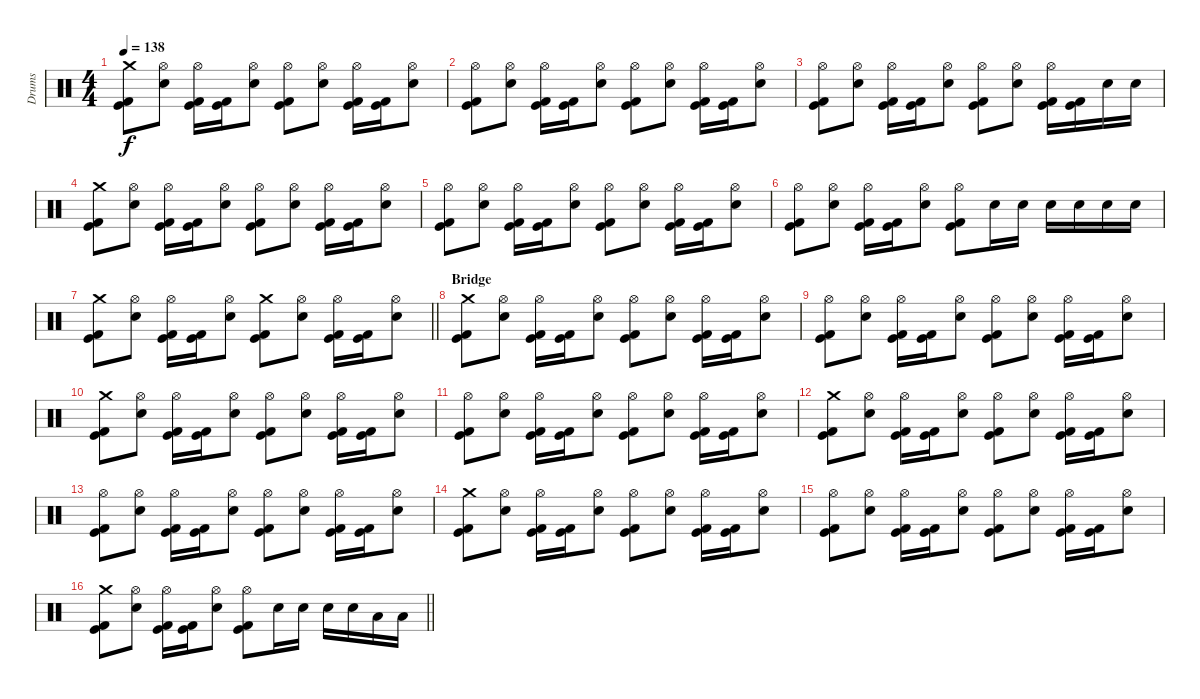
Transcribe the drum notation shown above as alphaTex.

\track ("Drums" "Drums") {instrument percussion}
\staff {score}
\articulation defaults
\ts (4 4)
\tempo 138
\clef neutral
\ks c
("Crash medium (hit)" "Kick (hit)" "Kick (hit) 2").8{dy f} ("Hi-Hat (open)" "Electric Snare (hit)").8 ("Hi-Hat (open)" "Kick (hit)" "Kick (hit) 2").16 ("Kick (hit)" "Kick (hit) 2").16 ("Hi-Hat (open)" "Electric Snare (hit)").8 ("Hi-Hat (open)" "Kick (hit)" "Kick (hit) 2").8 ("Hi-Hat (open)" "Electric Snare (hit)").8 ("Hi-Hat (open)" "Kick (hit)" "Kick (hit) 2").16 ("Kick (hit)" "Kick (hit) 2").16 ("Hi-Hat (open)" "Electric Snare (hit)").8 |
("Hi-Hat (open)" "Kick (hit)" "Kick (hit) 2").8 ("Hi-Hat (open)" "Electric Snare (hit)").8 ("Hi-Hat (open)" "Kick (hit)" "Kick (hit) 2").16 ("Kick (hit)" "Kick (hit) 2").16 ("Hi-Hat (open)" "Electric Snare (hit)").8 ("Hi-Hat (open)" "Kick (hit)" "Kick (hit) 2").8 ("Hi-Hat (open)" "Electric Snare (hit)").8 ("Hi-Hat (open)" "Kick (hit)" "Kick (hit) 2").16 ("Kick (hit)" "Kick (hit) 2").16 ("Hi-Hat (open)" "Electric Snare (hit)").8 |
("Hi-Hat (open)" "Kick (hit)" "Kick (hit) 2").8 ("Hi-Hat (open)" "Electric Snare (hit)").8 ("Hi-Hat (open)" "Kick (hit)" "Kick (hit) 2").16 ("Kick (hit)" "Kick (hit) 2").16 ("Hi-Hat (open)" "Electric Snare (hit)").8 ("Hi-Hat (open)" "Kick (hit)" "Kick (hit) 2").8 ("Hi-Hat (open)" "Electric Snare (hit)").8 ("Hi-Hat (open)" "Kick (hit)" "Kick (hit) 2").16 ("Kick (hit)" "Kick (hit) 2").16 "Electric Snare (hit)".16 "Electric Snare (hit)".16 |
("Crash medium (hit)" "Kick (hit)" "Kick (hit) 2").8 ("Hi-Hat (open)" "Electric Snare (hit)").8 ("Hi-Hat (open)" "Kick (hit)" "Kick (hit) 2").16 ("Kick (hit)" "Kick (hit) 2").16 ("Hi-Hat (open)" "Electric Snare (hit)").8 ("Hi-Hat (open)" "Kick (hit)" "Kick (hit) 2").8 ("Hi-Hat (open)" "Electric Snare (hit)").8 ("Hi-Hat (open)" "Kick (hit)" "Kick (hit) 2").16 ("Kick (hit)" "Kick (hit) 2").16 ("Hi-Hat (open)" "Electric Snare (hit)").8 |
("Hi-Hat (open)" "Kick (hit)" "Kick (hit) 2").8 ("Hi-Hat (open)" "Electric Snare (hit)").8 ("Hi-Hat (open)" "Kick (hit)" "Kick (hit) 2").16 ("Kick (hit)" "Kick (hit) 2").16 ("Hi-Hat (open)" "Electric Snare (hit)").8 ("Hi-Hat (open)" "Kick (hit)" "Kick (hit) 2").8 ("Hi-Hat (open)" "Electric Snare (hit)").8 ("Hi-Hat (open)" "Kick (hit)" "Kick (hit) 2").16 ("Kick (hit)" "Kick (hit) 2").16 ("Hi-Hat (open)" "Electric Snare (hit)").8 |
("Hi-Hat (open)" "Kick (hit)" "Kick (hit) 2").8 ("Hi-Hat (open)" "Electric Snare (hit)").8 ("Hi-Hat (open)" "Kick (hit)" "Kick (hit) 2").16 ("Kick (hit)" "Kick (hit) 2").16 ("Hi-Hat (open)" "Electric Snare (hit)").8 ("Hi-Hat (open)" "Kick (hit)" "Kick (hit) 2").8 "Electric Snare (hit)".16 "Electric Snare (hit)".16 "Electric Snare (hit)".16 "Electric Snare (hit)".16 "Electric Snare (hit)".16 "Electric Snare (hit)".16 |
\barLineRight lightlight
("Crash medium (hit)" "Kick (hit)" "Kick (hit) 2").8 ("Hi-Hat (open)" "Electric Snare (hit)").8 ("Hi-Hat (open)" "Kick (hit)" "Kick (hit) 2").16 ("Kick (hit)" "Kick (hit) 2").16 ("Hi-Hat (open)" "Electric Snare (hit)").8 ("Crash medium (hit)" "Kick (hit)" "Kick (hit) 2").8 ("Hi-Hat (open)" "Electric Snare (hit)").8 ("Hi-Hat (open)" "Kick (hit)" "Kick (hit) 2").16 ("Kick (hit)" "Kick (hit) 2").16 ("Hi-Hat (open)" "Electric Snare (hit)").8 |
\section ("" "Bridge")
("Crash medium (hit)" "Kick (hit)" "Kick (hit) 2").8 ("Hi-Hat (open)" "Electric Snare (hit)").8 ("Hi-Hat (open)" "Kick (hit)" "Kick (hit) 2").16 ("Kick (hit)" "Kick (hit) 2").16 ("Hi-Hat (open)" "Electric Snare (hit)").8 ("Hi-Hat (open)" "Kick (hit)" "Kick (hit) 2").8 ("Hi-Hat (open)" "Electric Snare (hit)").8 ("Hi-Hat (open)" "Kick (hit)" "Kick (hit) 2").16 ("Kick (hit)" "Kick (hit) 2").16 ("Hi-Hat (open)" "Electric Snare (hit)").8 |
("Hi-Hat (open)" "Kick (hit)" "Kick (hit) 2").8 ("Hi-Hat (open)" "Electric Snare (hit)").8 ("Hi-Hat (open)" "Kick (hit)" "Kick (hit) 2").16 ("Kick (hit)" "Kick (hit) 2").16 ("Hi-Hat (open)" "Electric Snare (hit)").8 ("Hi-Hat (open)" "Kick (hit)" "Kick (hit) 2").8 ("Hi-Hat (open)" "Electric Snare (hit)").8 ("Hi-Hat (open)" "Kick (hit)" "Kick (hit) 2").16 ("Kick (hit)" "Kick (hit) 2").16 ("Hi-Hat (open)" "Electric Snare (hit)").8 |
("Crash medium (hit)" "Kick (hit)" "Kick (hit) 2").8 ("Hi-Hat (open)" "Electric Snare (hit)").8 ("Hi-Hat (open)" "Kick (hit)" "Kick (hit) 2").16 ("Kick (hit)" "Kick (hit) 2").16 ("Hi-Hat (open)" "Electric Snare (hit)").8 ("Hi-Hat (open)" "Kick (hit)" "Kick (hit) 2").8 ("Hi-Hat (open)" "Electric Snare (hit)").8 ("Hi-Hat (open)" "Kick (hit)" "Kick (hit) 2").16 ("Kick (hit)" "Kick (hit) 2").16 ("Hi-Hat (open)" "Electric Snare (hit)").8 |
("Hi-Hat (open)" "Kick (hit)" "Kick (hit) 2").8 ("Hi-Hat (open)" "Electric Snare (hit)").8 ("Hi-Hat (open)" "Kick (hit)" "Kick (hit) 2").16 ("Kick (hit)" "Kick (hit) 2").16 ("Hi-Hat (open)" "Electric Snare (hit)").8 ("Hi-Hat (open)" "Kick (hit)" "Kick (hit) 2").8 ("Hi-Hat (open)" "Electric Snare (hit)").8 ("Hi-Hat (open)" "Kick (hit)" "Kick (hit) 2").16 ("Kick (hit)" "Kick (hit) 2").16 ("Hi-Hat (open)" "Electric Snare (hit)").8 |
("Crash medium (hit)" "Kick (hit)" "Kick (hit) 2").8 ("Hi-Hat (open)" "Electric Snare (hit)").8 ("Hi-Hat (open)" "Kick (hit)" "Kick (hit) 2").16 ("Kick (hit)" "Kick (hit) 2").16 ("Hi-Hat (open)" "Electric Snare (hit)").8 ("Hi-Hat (open)" "Kick (hit)" "Kick (hit) 2").8 ("Hi-Hat (open)" "Electric Snare (hit)").8 ("Hi-Hat (open)" "Kick (hit)" "Kick (hit) 2").16 ("Kick (hit)" "Kick (hit) 2").16 ("Hi-Hat (open)" "Electric Snare (hit)").8 |
("Hi-Hat (open)" "Kick (hit)" "Kick (hit) 2").8 ("Hi-Hat (open)" "Electric Snare (hit)").8 ("Hi-Hat (open)" "Kick (hit)" "Kick (hit) 2").16 ("Kick (hit)" "Kick (hit) 2").16 ("Hi-Hat (open)" "Electric Snare (hit)").8 ("Hi-Hat (open)" "Kick (hit)" "Kick (hit) 2").8 ("Hi-Hat (open)" "Electric Snare (hit)").8 ("Hi-Hat (open)" "Kick (hit)" "Kick (hit) 2").16 ("Kick (hit)" "Kick (hit) 2").16 ("Hi-Hat (open)" "Electric Snare (hit)").8 |
("Crash medium (hit)" "Kick (hit)" "Kick (hit) 2").8 ("Hi-Hat (open)" "Electric Snare (hit)").8 ("Hi-Hat (open)" "Kick (hit)" "Kick (hit) 2").16 ("Kick (hit)" "Kick (hit) 2").16 ("Hi-Hat (open)" "Electric Snare (hit)").8 ("Hi-Hat (open)" "Kick (hit)" "Kick (hit) 2").8 ("Hi-Hat (open)" "Electric Snare (hit)").8 ("Hi-Hat (open)" "Kick (hit)" "Kick (hit) 2").16 ("Kick (hit)" "Kick (hit) 2").16 ("Hi-Hat (open)" "Electric Snare (hit)").8 |
("Hi-Hat (open)" "Kick (hit)" "Kick (hit) 2").8 ("Hi-Hat (open)" "Electric Snare (hit)").8 ("Hi-Hat (open)" "Kick (hit)" "Kick (hit) 2").16 ("Kick (hit)" "Kick (hit) 2").16 ("Hi-Hat (open)" "Electric Snare (hit)").8 ("Hi-Hat (open)" "Kick (hit)" "Kick (hit) 2").8 ("Hi-Hat (open)" "Electric Snare (hit)").8 ("Hi-Hat (open)" "Kick (hit)" "Kick (hit) 2").16 ("Kick (hit)" "Kick (hit) 2").16 ("Hi-Hat (open)" "Electric Snare (hit)").8 |
\barLineRight lightlight
("Crash medium (hit)" "Kick (hit)" "Kick (hit) 2").8 ("Hi-Hat (open)" "Electric Snare (hit)").8 ("Hi-Hat (open)" "Kick (hit)" "Kick (hit) 2").16 ("Kick (hit)" "Kick (hit) 2").16 ("Hi-Hat (open)" "Electric Snare (hit)").8 ("Hi-Hat (open)" "Kick (hit)" "Kick (hit) 2").8 "Electric Snare (hit)".16 "Electric Snare (hit)".16 "Electric Snare (hit)".16 "Electric Snare (hit)".16 "Low Tom (hit)".16 "Low Tom (hit)".16
